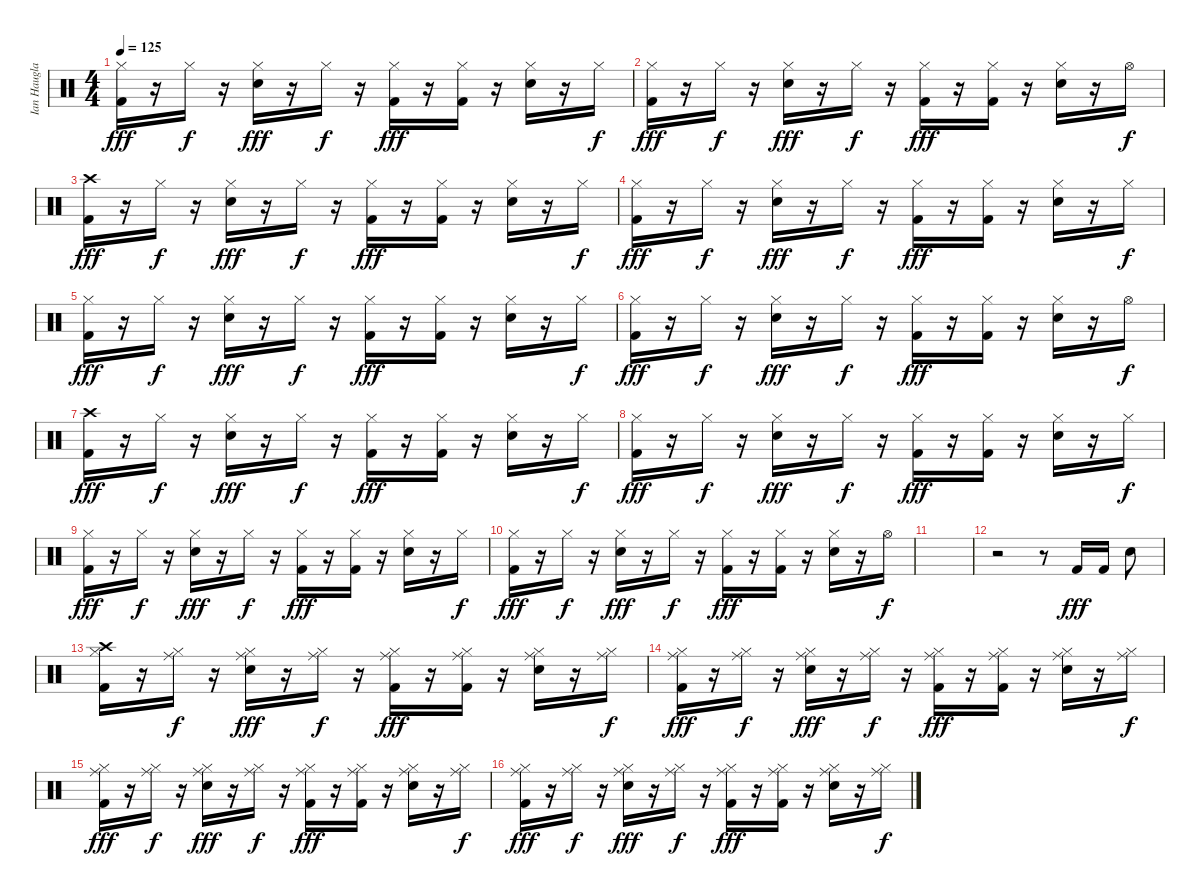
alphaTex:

\track ("Ian Haugland" "Ian Haugla") {instrument percussion}
\staff {score}
\articulation defaults
\ts (4 4)
\tempo 125
\clef neutral
\ks c
("Hi-Hat (closed)" "Kick (hit) 2").16{dy fff} r.16 "Hi-Hat (closed)".16{dy f} r.16 ("Hi-Hat (closed)" "Electric Snare (hit)").16{dy fff} r.16 "Hi-Hat (closed)".16{dy f} r.16 ("Hi-Hat (closed)" "Kick (hit) 2").16{dy fff} r.16 ("Hi-Hat (closed)" "Kick (hit) 2").16 r.16 ("Hi-Hat (closed)" "Electric Snare (hit)").16 r.16 "Hi-Hat (closed)".16{dy f} |
("Hi-Hat (closed)" "Kick (hit) 2").16{dy fff} r.16 "Hi-Hat (closed)".16{dy f} r.16 ("Hi-Hat (closed)" "Electric Snare (hit)").16{dy fff} r.16 "Hi-Hat (closed)".16{dy f} r.16 ("Hi-Hat (closed)" "Kick (hit) 2").16{dy fff} r.16 ("Hi-Hat (closed)" "Kick (hit) 2").16 r.16 ("Hi-Hat (closed)" "Electric Snare (hit)").16 r.16 "Hi-Hat (open)".16{dy f} |
("Crash high (hit)" "Kick (hit) 2").16{dy fff} r.16 "Hi-Hat (closed)".16{dy f} r.16 ("Hi-Hat (closed)" "Electric Snare (hit)").16{dy fff} r.16 "Hi-Hat (closed)".16{dy f} r.16 ("Hi-Hat (closed)" "Kick (hit) 2").16{dy fff} r.16 ("Hi-Hat (closed)" "Kick (hit) 2").16 r.16 ("Hi-Hat (closed)" "Electric Snare (hit)").16 r.16 "Hi-Hat (closed)".16{dy f} |
("Hi-Hat (closed)" "Kick (hit) 2").16{dy fff} r.16 "Hi-Hat (closed)".16{dy f} r.16 ("Hi-Hat (closed)" "Electric Snare (hit)").16{dy fff} r.16 "Hi-Hat (closed)".16{dy f} r.16 ("Hi-Hat (closed)" "Kick (hit) 2").16{dy fff} r.16 ("Hi-Hat (closed)" "Kick (hit) 2").16 r.16 ("Hi-Hat (closed)" "Electric Snare (hit)").16 r.16 "Hi-Hat (closed)".16{dy f} |
("Hi-Hat (closed)" "Kick (hit) 2").16{dy fff} r.16 "Hi-Hat (closed)".16{dy f} r.16 ("Hi-Hat (closed)" "Electric Snare (hit)").16{dy fff} r.16 "Hi-Hat (closed)".16{dy f} r.16 ("Hi-Hat (closed)" "Kick (hit) 2").16{dy fff} r.16 ("Hi-Hat (closed)" "Kick (hit) 2").16 r.16 ("Hi-Hat (closed)" "Electric Snare (hit)").16 r.16 "Hi-Hat (closed)".16{dy f} |
("Hi-Hat (closed)" "Kick (hit) 2").16{dy fff} r.16 "Hi-Hat (closed)".16{dy f} r.16 ("Hi-Hat (closed)" "Electric Snare (hit)").16{dy fff} r.16 "Hi-Hat (closed)".16{dy f} r.16 ("Hi-Hat (closed)" "Kick (hit) 2").16{dy fff} r.16 ("Hi-Hat (closed)" "Kick (hit) 2").16 r.16 ("Hi-Hat (closed)" "Electric Snare (hit)").16 r.16 "Hi-Hat (open)".16{dy f} |
("Crash high (hit)" "Kick (hit) 2").16{dy fff} r.16 "Hi-Hat (closed)".16{dy f} r.16 ("Hi-Hat (closed)" "Electric Snare (hit)").16{dy fff} r.16 "Hi-Hat (closed)".16{dy f} r.16 ("Hi-Hat (closed)" "Kick (hit) 2").16{dy fff} r.16 ("Hi-Hat (closed)" "Kick (hit) 2").16 r.16 ("Hi-Hat (closed)" "Electric Snare (hit)").16 r.16 "Hi-Hat (closed)".16{dy f} |
("Hi-Hat (closed)" "Kick (hit) 2").16{dy fff} r.16 "Hi-Hat (closed)".16{dy f} r.16 ("Hi-Hat (closed)" "Electric Snare (hit)").16{dy fff} r.16 "Hi-Hat (closed)".16{dy f} r.16 ("Hi-Hat (closed)" "Kick (hit) 2").16{dy fff} r.16 ("Hi-Hat (closed)" "Kick (hit) 2").16 r.16 ("Hi-Hat (closed)" "Electric Snare (hit)").16 r.16 "Hi-Hat (closed)".16{dy f} |
("Hi-Hat (closed)" "Kick (hit) 2").16{dy fff} r.16 "Hi-Hat (closed)".16{dy f} r.16 ("Hi-Hat (closed)" "Electric Snare (hit)").16{dy fff} r.16 "Hi-Hat (closed)".16{dy f} r.16 ("Hi-Hat (closed)" "Kick (hit) 2").16{dy fff} r.16 ("Hi-Hat (closed)" "Kick (hit) 2").16 r.16 ("Hi-Hat (closed)" "Electric Snare (hit)").16 r.16 "Hi-Hat (closed)".16{dy f} |
("Hi-Hat (closed)" "Kick (hit) 2").16{dy fff} r.16 "Hi-Hat (closed)".16{dy f} r.16 ("Hi-Hat (closed)" "Electric Snare (hit)").16{dy fff} r.16 "Hi-Hat (closed)".16{dy f} r.16 ("Hi-Hat (closed)" "Kick (hit) 2").16{dy fff} r.16 ("Hi-Hat (closed)" "Kick (hit) 2").16 r.16 ("Hi-Hat (closed)" "Electric Snare (hit)").16 r.16 "Hi-Hat (open)".16{dy f} |
|
r.2 r.8 "Kick (hit) 2".16{dy fff} "Kick (hit) 2".16 "Electric Snare (hit)".8 |
("Crash high (hit)" "Hi-Hat (closed)" "Kick (hit) 2").16 r.16 ("Ride (middle)" "Hi-Hat (closed)").16{dy f} r.16 ("Ride (middle)" "Hi-Hat (closed)" "Electric Snare (hit)").16{dy fff} r.16 ("Ride (middle)" "Hi-Hat (closed)").16{dy f} r.16 ("Ride (middle)" "Hi-Hat (closed)" "Kick (hit) 2").16{dy fff} r.16 ("Ride (middle)" "Hi-Hat (closed)" "Kick (hit) 2").16 r.16 ("Ride (middle)" "Hi-Hat (closed)" "Electric Snare (hit)").16 r.16 ("Ride (middle)" "Hi-Hat (closed)").16{dy f} |
("Ride (middle)" "Hi-Hat (closed)" "Kick (hit) 2").16{dy fff} r.16 ("Ride (middle)" "Hi-Hat (closed)").16{dy f} r.16 ("Ride (middle)" "Hi-Hat (closed)" "Electric Snare (hit)").16{dy fff} r.16 ("Ride (middle)" "Hi-Hat (closed)").16{dy f} r.16 ("Ride (middle)" "Hi-Hat (closed)" "Kick (hit) 2").16{dy fff} r.16 ("Ride (middle)" "Hi-Hat (closed)" "Kick (hit) 2").16 r.16 ("Ride (middle)" "Hi-Hat (closed)" "Electric Snare (hit)").16 r.16 ("Ride (middle)" "Hi-Hat (closed)").16{dy f} |
("Ride (middle)" "Hi-Hat (closed)" "Kick (hit) 2").16{dy fff} r.16 ("Ride (middle)" "Hi-Hat (closed)").16{dy f} r.16 ("Ride (middle)" "Hi-Hat (closed)" "Electric Snare (hit)").16{dy fff} r.16 ("Ride (middle)" "Hi-Hat (closed)").16{dy f} r.16 ("Ride (middle)" "Hi-Hat (closed)" "Kick (hit) 2").16{dy fff} r.16 ("Ride (middle)" "Hi-Hat (closed)" "Kick (hit) 2").16 r.16 ("Ride (middle)" "Hi-Hat (closed)" "Electric Snare (hit)").16 r.16 ("Ride (middle)" "Hi-Hat (closed)").16{dy f} |
("Ride (middle)" "Hi-Hat (closed)" "Kick (hit) 2").16{dy fff} r.16 ("Ride (middle)" "Hi-Hat (closed)").16{dy f} r.16 ("Ride (middle)" "Hi-Hat (closed)" "Electric Snare (hit)").16{dy fff} r.16 ("Ride (middle)" "Hi-Hat (closed)").16{dy f} r.16 ("Ride (middle)" "Hi-Hat (closed)" "Kick (hit) 2").16{dy fff} r.16 ("Ride (middle)" "Hi-Hat (closed)" "Kick (hit) 2").16 r.16 ("Ride (middle)" "Hi-Hat (closed)" "Electric Snare (hit)").16 r.16 ("Ride (middle)" "Hi-Hat (closed)").16{dy f}
